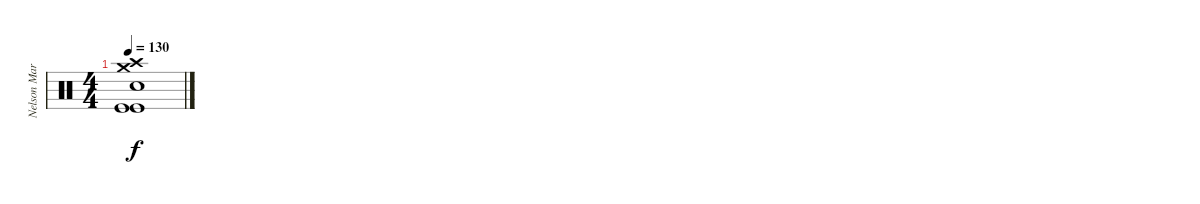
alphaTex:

\track ("Nelson Maria" "Nelson Mar") {instrument percussion}
\staff {score}
\articulation defaults
\ts (4 4)
\tempo 130
\clef neutral
\ks c
("Crash high (hit)" "Crash medium (hit)" "Snare (hit) 2" "Kick (hit)" "Kick (hit)").1{dy f}
